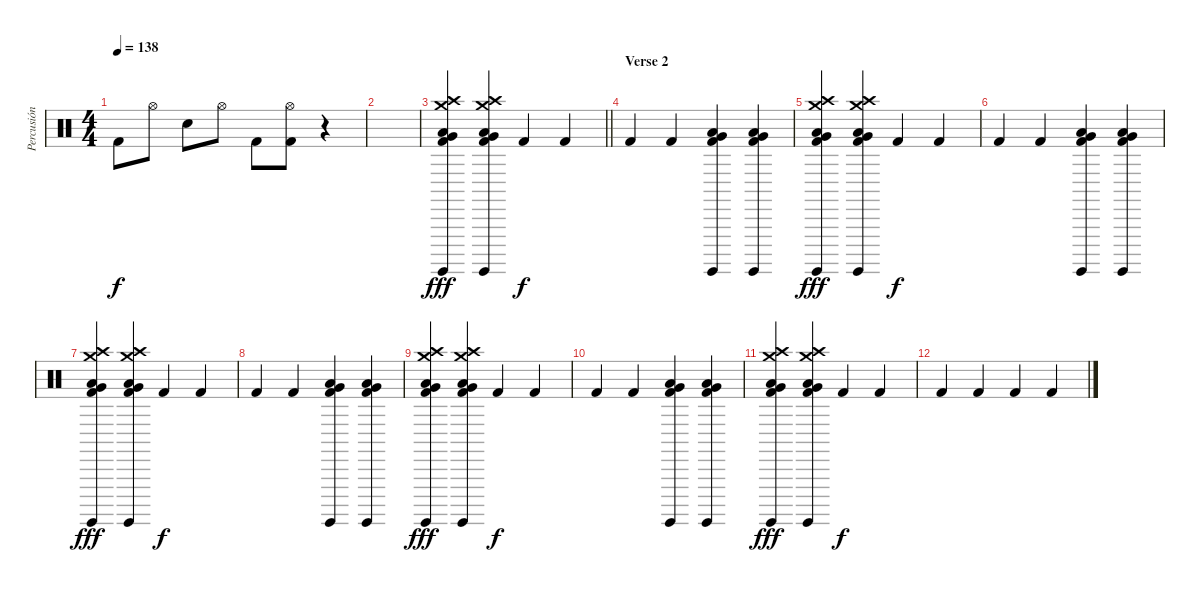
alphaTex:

\track ("Percusión" "Percusión") {instrument percussion}
\staff {score}
\articulation defaults
\ts (4 4)
\tempo 138
\clef neutral
\ks c "Kick (hit) 2".8{dy f} "Hi-Hat (open)".8 "Electric Snare (hit)".8 "Hi-Hat (open)".8 "Kick (hit) 2".8
("Hi-Hat (open)" "Kick (hit) 2").8 r.4 |
|
\barLineRight lightlight
("Crash medium (hit)" "Crash high (hit)" "Low Tom (hit)" "Surdo (hit)" "Very Low Tom (hit)" "Kick (hit) 2").4{dy fff} ("Crash medium (hit)" "Crash high (hit)" "Low Tom (hit)" "Surdo (hit)" "Very Low Tom (hit)" "Kick (hit) 2").4 "Kick (hit) 2".4{dy f} "Kick (hit) 2".4 |
\section ("" "Verse 2")
"Kick (hit) 2".4 "Kick (hit) 2".4 ("Low Tom (hit)" "Surdo (hit)" "Very Low Tom (hit)" "Kick (hit) 2").4 ("Low Tom (hit)" "Surdo (hit)" "Very Low Tom (hit)" "Kick (hit) 2").4 |
("Crash medium (hit)" "Crash high (hit)" "Low Tom (hit)" "Surdo (hit)" "Very Low Tom (hit)" "Kick (hit) 2").4{dy fff} ("Crash medium (hit)" "Crash high (hit)" "Low Tom (hit)" "Surdo (hit)" "Very Low Tom (hit)" "Kick (hit) 2").4 "Kick (hit) 2".4{dy f} "Kick (hit) 2".4 |
"Kick (hit) 2".4 "Kick (hit) 2".4 ("Low Tom (hit)" "Surdo (hit)" "Very Low Tom (hit)" "Kick (hit) 2").4 ("Low Tom (hit)" "Surdo (hit)" "Very Low Tom (hit)" "Kick (hit) 2").4 |
("Crash medium (hit)" "Crash high (hit)" "Low Tom (hit)" "Surdo (hit)" "Very Low Tom (hit)" "Kick (hit) 2").4{dy fff} ("Crash medium (hit)" "Crash high (hit)" "Low Tom (hit)" "Surdo (hit)" "Very Low Tom (hit)" "Kick (hit) 2").4 "Kick (hit) 2".4{dy f} "Kick (hit) 2".4 |
"Kick (hit) 2".4 "Kick (hit) 2".4 ("Low Tom (hit)" "Surdo (hit)" "Very Low Tom (hit)" "Kick (hit) 2").4 ("Low Tom (hit)" "Surdo (hit)" "Very Low Tom (hit)" "Kick (hit) 2").4 |
("Crash medium (hit)" "Crash high (hit)" "Low Tom (hit)" "Surdo (hit)" "Very Low Tom (hit)" "Kick (hit) 2").4{dy fff} ("Crash medium (hit)" "Crash high (hit)" "Low Tom (hit)" "Surdo (hit)" "Very Low Tom (hit)" "Kick (hit) 2").4 "Kick (hit) 2".4{dy f} "Kick (hit) 2".4 |
"Kick (hit) 2".4 "Kick (hit) 2".4 ("Low Tom (hit)" "Surdo (hit)" "Very Low Tom (hit)" "Kick (hit) 2").4 ("Low Tom (hit)" "Surdo (hit)" "Very Low Tom (hit)" "Kick (hit) 2").4 |
("Crash medium (hit)" "Crash high (hit)" "Low Tom (hit)" "Surdo (hit)" "Very Low Tom (hit)" "Kick (hit) 2").4{dy fff} ("Crash medium (hit)" "Crash high (hit)" "Low Tom (hit)" "Surdo (hit)" "Very Low Tom (hit)" "Kick (hit) 2").4 "Kick (hit) 2".4{dy f} "Kick (hit) 2".4 |
"Kick (hit) 2".4 "Kick (hit) 2".4 "Kick (hit) 2".4 "Kick (hit) 2".4
